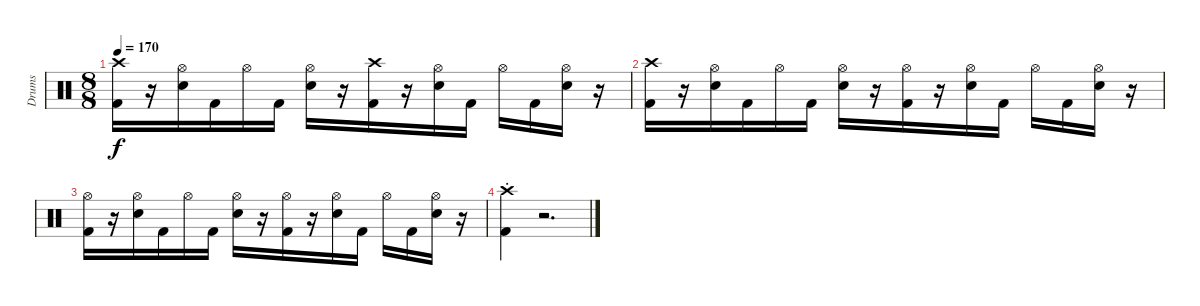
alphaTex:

\track ("Drums" "Drums") {mute instrument percussion}
\staff {score}
\articulation defaults
\ts (8 8)
\tempo 170
\clef neutral
\ks c
("Crash high (hit)" "Kick (hit) 2").16{dy f} r.16 ("Hi-Hat (open)" "Snare (hit) 2").16 "Kick (hit) 2".16 "Hi-Hat (open)".16 "Kick (hit) 2".16 ("Hi-Hat (open)" "Snare (hit) 2").16 r.16 ("Crash high (hit)" "Kick (hit) 2").16 r.16 ("Hi-Hat (open)" "Snare (hit) 2").16 "Kick (hit) 2".16 "Hi-Hat (open)".16 "Kick (hit) 2".16 ("Hi-Hat (open)" "Snare (hit) 2").16 r.16 |
("Crash high (hit)" "Kick (hit) 2").16 r.16 ("Hi-Hat (open)" "Snare (hit) 2").16 "Kick (hit) 2".16 "Hi-Hat (open)".16 "Kick (hit) 2".16 ("Hi-Hat (open)" "Snare (hit) 2").16 r.16 ("Hi-Hat (open)" "Kick (hit) 2").16 r.16 ("Hi-Hat (open)" "Snare (hit) 2").16 "Kick (hit) 2".16 "Hi-Hat (open)".16 "Kick (hit) 2".16 ("Hi-Hat (open)" "Snare (hit) 2").16 r.16 |
("Hi-Hat (open)" "Kick (hit) 2").16 r.16 ("Hi-Hat (open)" "Snare (hit) 2").16 "Kick (hit) 2".16 "Hi-Hat (open)".16 "Kick (hit) 2".16 ("Hi-Hat (open)" "Snare (hit) 2").16 r.16 ("Hi-Hat (open)" "Kick (hit) 2").16 r.16 ("Hi-Hat (open)" "Snare (hit) 2").16 "Kick (hit) 2".16 "Hi-Hat (open)".16 "Kick (hit) 2".16 ("Hi-Hat (open)" "Snare (hit) 2").16 r.16 |
("Crash high (hit)"{st} "Kick (hit) 2").4 r.2{d}
